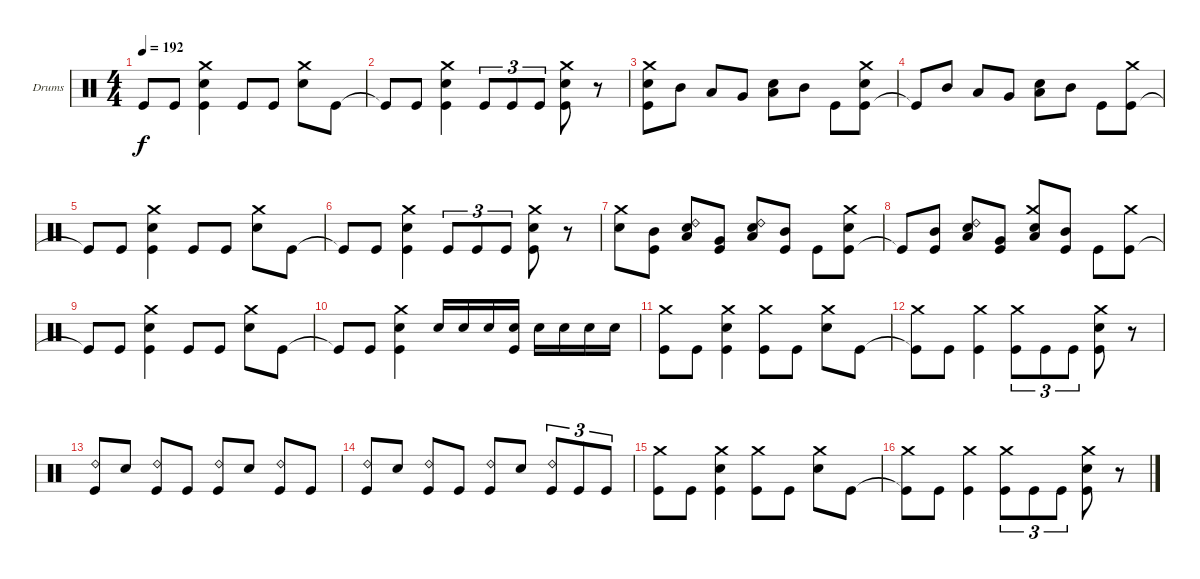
\defaultSystemsLayout 4
\bracketExtendMode groupsimilarinstruments
\firstSystemTrackNameOrientation horizontal
\otherSystemsTrackNameOrientation horizontal
\track ("Drumkit" "Drums") {instrument percussion}
\staff {score}
\articulation defaults
\ts (4 4)
\tempo 192
\clef neutral
\ks c "Kick (hit)"{t}.8{dy f} "Kick (hit)".8
("Kick (hit)" "Snare (hit) 2" "Crash medium (hit)").4 "Kick (hit)".8 "Kick (hit)".8 ("Snare (hit) 2" "Crash medium (hit)").8 "Kick (hit)".8 |
"Kick (hit)"{t}.8 "Kick (hit)".8 ("Kick (hit)" "Snare (hit) 2" "Crash medium (hit)").4 "Kick (hit)".8{tu (3 2)} "Kick (hit)".8{tu (3 2)} "Kick (hit)".8{tu (3 2)} ("Kick (hit)" "Snare (hit) 2" "Crash medium (hit)").8 r.8 |
("Snare (hit) 2" "Crash medium (hit)" "Kick (hit)").8 "Mid Tom (hit)".8 "Low Tom (hit)".8 "Very Low Tom (hit)".8 ("Low Tom (hit)" "Snare (hit) 2").8 "Mid Tom (hit)".8 "Kick (hit)".8 ("Kick (hit)" "Snare (hit) 2" "Crash medium (hit)").8 |
"Kick (hit)"{t}.8 "Mid Tom (hit)".8 "Low Tom (hit)".8 "Very Low Tom (hit)".8 ("Low Tom (hit)" "Snare (hit) 2").8 "Mid Tom (hit)".8 "Kick (hit)".8 ("Kick (hit)" "Crash medium (hit)").8 |
"Kick (hit)"{t}.8 "Kick (hit)".8 ("Kick (hit)" "Snare (hit) 2" "Crash medium (hit)").4 "Kick (hit)".8 "Kick (hit)".8 ("Snare (hit) 2" "Crash medium (hit)").8 "Kick (hit)".8 |
"Kick (hit)"{t}.8 "Kick (hit)".8 ("Kick (hit)" "Snare (hit) 2" "Crash medium (hit)").4 "Kick (hit)".8{tu (3 2)} "Kick (hit)".8{tu (3 2)} "Kick (hit)".8{tu (3 2)} ("Kick (hit)" "Snare (hit) 2" "Crash medium (hit)").8 r.8 |
("Crash medium (hit)" "Snare (hit) 2").8 ("Mid Tom (hit)" "Kick (hit)").8 ("Low Tom (hit)" "Snare (hit) 2" "Ride (bell) 2").8 ("Kick (hit)" "Very Low Tom (hit)").8 ("Low Tom (hit)" "Snare (hit) 2" "Ride (bell) 2").8 ("Kick (hit)" "Mid Tom (hit)").8 "Kick (hit)".8 ("Kick (hit)" "Snare (hit) 2" "Crash medium (hit)").8 |
"Kick (hit)"{t}.8 ("Kick (hit)" "Mid Tom (hit)").8 ("Ride (bell) 2" "Snare (hit) 2" "Low Tom (hit)").8 ("Very Low Tom (hit)" "Kick (hit)").8 ("Low Tom (hit)" "Snare (hit) 2" "Crash medium (hit)").8 ("Mid Tom (hit)" "Kick (hit)").8 "Kick (hit)".8 ("Kick (hit)" "Crash medium (hit)").8 |
"Kick (hit)"{t}.8 "Kick (hit)".8 ("Kick (hit)" "Snare (hit) 2" "Crash medium (hit)").4 "Kick (hit)".8 "Kick (hit)".8 ("Snare (hit) 2" "Crash medium (hit)").8 "Kick (hit)".8 |
"Kick (hit)"{t}.8 "Kick (hit)".8 ("Kick (hit)" "Snare (hit) 2" "Crash medium (hit)").4 "Snare (hit) 2".16 "Snare (hit) 2".16 "Snare (hit) 2".16 ("Snare (hit) 2" "Kick (hit)").16 "Snare (hit) 2".16 "Snare (hit) 2".16 "Snare (hit) 2".16 "Snare (hit) 2".16 |
("Kick (hit)" "Crash medium (hit)").8 "Kick (hit)".8 ("Kick (hit)" "Snare (hit) 2" "Crash medium (hit)").4 ("Crash medium (hit)" "Kick (hit)").8 "Kick (hit)".8 ("Snare (hit) 2" "Crash medium (hit)").8 "Kick (hit)".8 |
("Kick (hit)"{t} "Crash medium (hit)").8 "Kick (hit)".8 ("Kick (hit)" "Crash medium (hit)").4 ("Crash medium (hit)" "Kick (hit)").8{tu (3 2)} "Kick (hit)".8{tu (3 2)} "Kick (hit)".8{tu (3 2)} ("Kick (hit)" "Snare (hit) 2" "Crash medium (hit)").8 r.8 |
("Kick (hit)" "Ride (bell) 2").8 "Snare (hit) 2".8 ("Kick (hit)" "Ride (bell) 2").8 "Kick (hit)".8 ("Kick (hit)" "Ride (bell) 2").8 "Snare (hit) 2".8 ("Kick (hit)" "Ride (bell) 2").8 "Kick (hit)".8 |
("Kick (hit)" "Ride (bell) 2").8 "Snare (hit) 2".8 ("Kick (hit)" "Ride (bell) 2").8 "Kick (hit)".8 ("Kick (hit)" "Ride (bell) 2").8 "Snare (hit) 2".8 ("Kick (hit)" "Ride (bell) 2").8{tu (3 2)} "Kick (hit)".8{tu (3 2)} "Kick (hit)".8{tu (3 2)} |
("Kick (hit)" "Crash medium (hit)").8 "Kick (hit)".8 ("Kick (hit)" "Snare (hit) 2" "Crash medium (hit)").4 ("Crash medium (hit)" "Kick (hit)").8 "Kick (hit)".8 ("Snare (hit) 2" "Crash medium (hit)").8 "Kick (hit)".8 |
("Kick (hit)"{t} "Crash medium (hit)").8 "Kick (hit)".8 ("Kick (hit)" "Crash medium (hit)").4 ("Crash medium (hit)" "Kick (hit)").8{tu (3 2)} "Kick (hit)".8{tu (3 2)} "Kick (hit)".8{tu (3 2)} ("Kick (hit)" "Snare (hit) 2" "Crash medium (hit)").8 r.8
